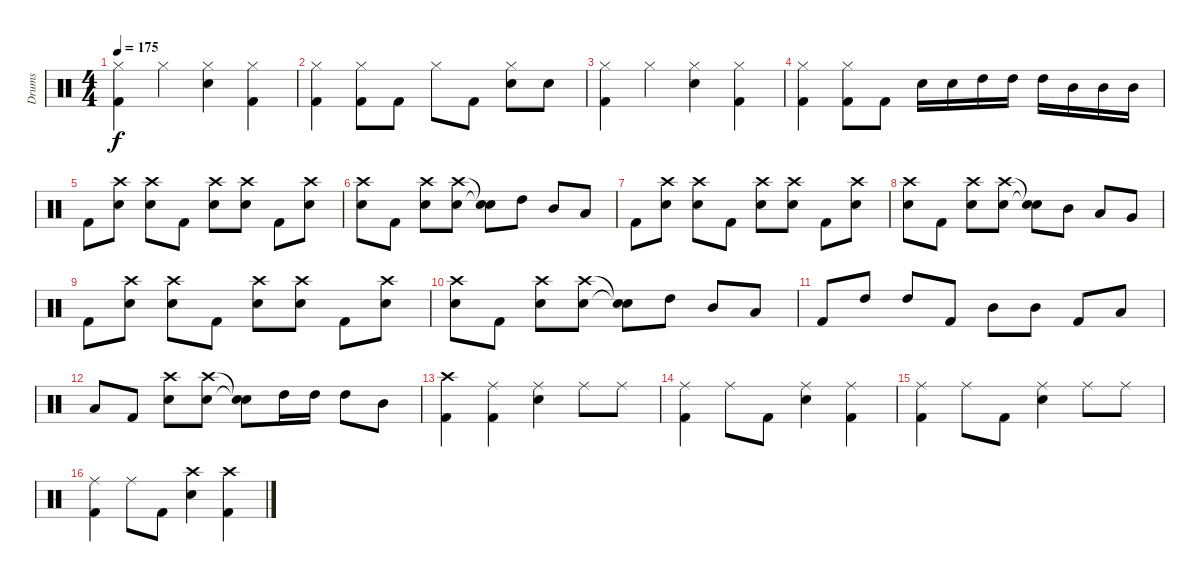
\track ("Drums" "Drums") {mute instrument percussion}
\staff {score}
\articulation defaults
\ts (4 4)
\tempo 175
\clef neutral
\ks c
("Hi-Hat (closed)" "Kick (hit) 2").4{dy f} "Hi-Hat (closed)".4 ("Hi-Hat (closed)" "Electric Snare (hit)").4 ("Hi-Hat (closed)" "Kick (hit) 2").4 |
("Hi-Hat (closed)" "Kick (hit) 2").4 ("Hi-Hat (closed)" "Kick (hit) 2").8 "Kick (hit) 2".8 "Hi-Hat (closed)".8 "Kick (hit) 2".8 ("Hi-Hat (closed)" "Electric Snare (hit)").8 "Electric Snare (hit)".8 |
("Hi-Hat (closed)" "Kick (hit) 2").4 "Hi-Hat (closed)".4 ("Hi-Hat (closed)" "Electric Snare (hit)").4 ("Hi-Hat (closed)" "Kick (hit) 2").4 |
("Hi-Hat (closed)" "Kick (hit) 2").4 ("Hi-Hat (closed)" "Kick (hit) 2").8 "Kick (hit) 2".8 "Electric Snare (hit)".16 "Electric Snare (hit)".16 "High Tom (hit)".16 "High Tom (hit)".16 "High Tom (hit)".16 "Mid Tom (hit)".16 "Mid Tom (hit)".16 "Mid Tom (hit)".16 |
"Kick (hit) 2".8 ("Crash high (hit)" "Electric Snare (hit)").8 ("Crash high (hit)" "Electric Snare (hit)").8 "Kick (hit) 2".8 ("Crash high (hit)" "Electric Snare (hit)").8 ("Crash high (hit)" "Electric Snare (hit)").8 "Kick (hit) 2".8 ("Crash high (hit)" "Electric Snare (hit)").8 |
("Crash high (hit)" "Electric Snare (hit)").8 "Kick (hit) 2".8 ("Crash high (hit)" "Electric Snare (hit)").8 ("Crash high (hit)" "Electric Snare (hit)").8 ("Snare (hit)"{t} "Snare (hit)"{t}).8 "High Tom (hit)".8 "Mid Tom (hit)".8 "Low Tom (hit)".8 |
"Kick (hit) 2".8 ("Crash high (hit)" "Electric Snare (hit)").8 ("Crash high (hit)" "Electric Snare (hit)").8 "Kick (hit) 2".8 ("Crash high (hit)" "Electric Snare (hit)").8 ("Crash high (hit)" "Electric Snare (hit)").8 "Kick (hit) 2".8 ("Crash high (hit)" "Electric Snare (hit)").8 |
("Crash high (hit)" "Electric Snare (hit)").8 "Kick (hit) 2".8 ("Crash high (hit)" "Electric Snare (hit)").8 ("Crash high (hit)" "Electric Snare (hit)").8 ("Snare (hit)"{t} "Snare (hit)"{t}).8 "Mid Tom (hit)".8 "Low Tom (hit)".8 "Very Low Tom (hit)".8 |
"Kick (hit) 2".8 ("Crash high (hit)" "Electric Snare (hit)").8 ("Crash high (hit)" "Electric Snare (hit)").8 "Kick (hit) 2".8 ("Crash high (hit)" "Electric Snare (hit)").8 ("Crash high (hit)" "Electric Snare (hit)").8 "Kick (hit) 2".8 ("Crash high (hit)" "Electric Snare (hit)").8 |
("Crash high (hit)" "Electric Snare (hit)").8 "Kick (hit) 2".8 ("Crash high (hit)" "Electric Snare (hit)").8 ("Crash high (hit)" "Electric Snare (hit)").8 ("Snare (hit)"{t} "Snare (hit)"{t}).8 "High Tom (hit)".8 "Mid Tom (hit)".8 "Low Tom (hit)".8 |
"Kick (hit) 2".8 "High Tom (hit)".8 "High Tom (hit)".8 "Kick (hit) 2".8 "Mid Tom (hit)".8 "Mid Tom (hit)".8 "Kick (hit) 2".8 "Low Tom (hit)".8 |
"Low Tom (hit)".8 "Kick (hit) 2".8 ("Crash high (hit)" "Electric Snare (hit)").8 ("Crash high (hit)" "Electric Snare (hit)").8 ("Snare (hit)"{t} "Snare (hit)"{t}).8 "High Tom (hit)".16 "High Tom (hit)".16 "High Tom (hit)".8 "Mid Tom (hit)".8 |
("Crash high (hit)" "Kick (hit) 2").4 ("Ride (middle)" "Kick (hit) 2").4 ("Ride (middle)" "Electric Snare (hit)").4 "Ride (middle)".8 "Ride (middle)".8 |
("Ride (middle)" "Kick (hit) 2").4 "Ride (middle)".8 "Kick (hit) 2".8 ("Ride (middle)" "Electric Snare (hit)").4 ("Ride (middle)" "Kick (hit) 2").4 |
("Ride (middle)" "Kick (hit) 2").4 "Ride (middle)".8 "Kick (hit) 2".8 ("Ride (middle)" "Electric Snare (hit)").4 "Ride (middle)".8 "Ride (middle)".8 |
("Ride (middle)" "Kick (hit) 2").4 "Ride (middle)".8 "Kick (hit) 2".8 ("Crash high (hit)" "Electric Snare (hit)").4 ("Crash high (hit)" "Kick (hit) 2").4
